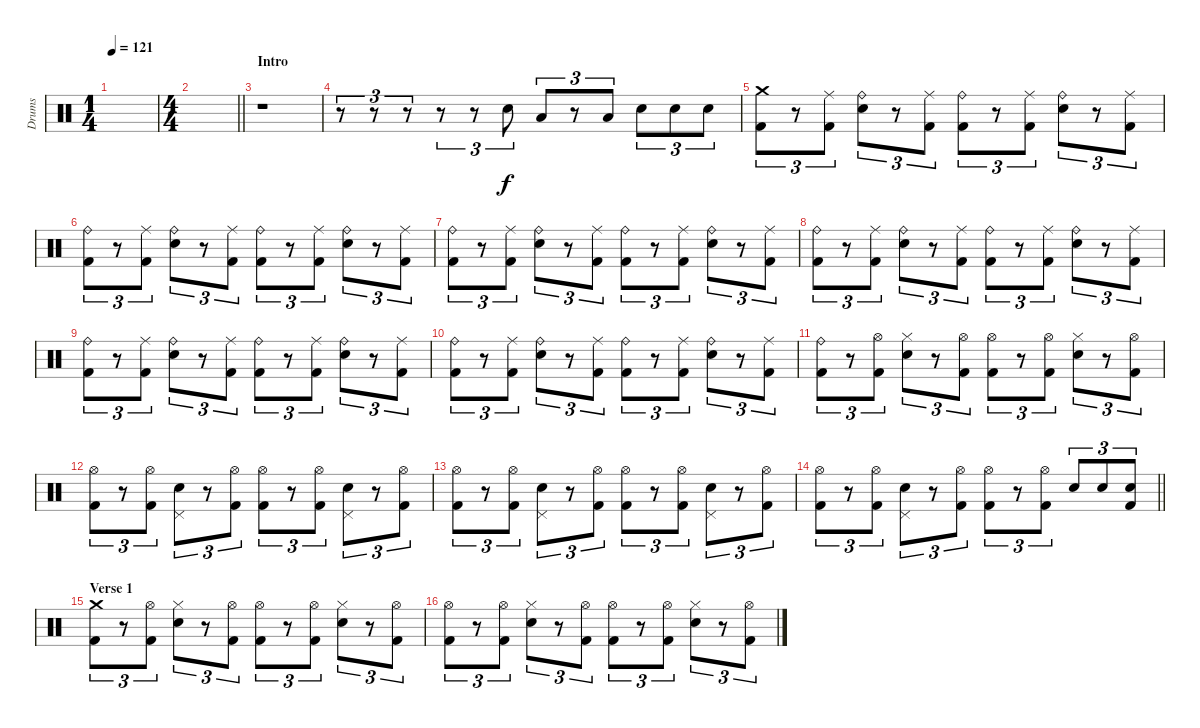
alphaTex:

\track ("Drums" "Drums") {instrument percussion}
\staff {score}
\articulation defaults
\ts (1 4)
\tempo 121
\clef neutral
\ks c
|
\ts (4 4)
\barLineRight lightlight
|
\section ("" "Intro")
r.1 |
r.8{tu (3 2)} r.8{tu (3 2)} r.8{tu (3 2)} r.8{tu (3 2)} r.8{tu (3 2)} "Snare (hit) 2".8{tu (3 2)} "Low Tom (hit)".8{tu (3 2)} r.8{tu (3 2)} "Low Floor Tom (hit)".8{tu (3 2)} "Snare (hit) 2".8{tu (3 2)} "Snare (hit) 2".8{tu (3 2)} "Snare (hit) 2".8{tu (3 2)} |
("Crash medium (hit)" "Kick (hit) 2").8{tu (3 2)} r.8{tu (3 2)} ("Ride (middle)" "Kick (hit) 2").8{tu (3 2)} ("Ride (bell)" "Snare (hit) 2").8{tu (3 2)} r.8{tu (3 2)} ("Ride (middle)" "Kick (hit) 2").8{tu (3 2)} ("Ride (bell)" "Kick (hit) 2").8{tu (3 2)} r.8{tu (3 2)} ("Ride (middle)" "Kick (hit) 2").8{tu (3 2)} ("Ride (bell)" "Snare (hit) 2").8{tu (3 2)} r.8{tu (3 2)} ("Ride (middle)" "Kick (hit) 2").8{tu (3 2)} |
("Ride (bell)" "Kick (hit) 2").8{tu (3 2)} r.8{tu (3 2)} ("Ride (middle)" "Kick (hit) 2").8{tu (3 2)} ("Ride (bell)" "Snare (hit) 2").8{tu (3 2)} r.8{tu (3 2)} ("Ride (middle)" "Kick (hit) 2").8{tu (3 2)} ("Ride (bell)" "Kick (hit) 2").8{tu (3 2)} r.8{tu (3 2)} ("Ride (middle)" "Kick (hit) 2").8{tu (3 2)} ("Ride (bell)" "Snare (hit) 2").8{tu (3 2)} r.8{tu (3 2)} ("Ride (middle)" "Kick (hit) 2").8{tu (3 2)} |
("Ride (bell)" "Kick (hit) 2").8{tu (3 2)} r.8{tu (3 2)} ("Ride (middle)" "Kick (hit) 2").8{tu (3 2)} ("Ride (bell)" "Snare (hit) 2").8{tu (3 2)} r.8{tu (3 2)} ("Ride (middle)" "Kick (hit) 2").8{tu (3 2)} ("Ride (bell)" "Kick (hit) 2").8{tu (3 2)} r.8{tu (3 2)} ("Ride (middle)" "Kick (hit) 2").8{tu (3 2)} ("Ride (bell)" "Snare (hit) 2").8{tu (3 2)} r.8{tu (3 2)} ("Ride (middle)" "Kick (hit) 2").8{tu (3 2)} |
("Ride (bell)" "Kick (hit) 2").8{tu (3 2)} r.8{tu (3 2)} ("Ride (middle)" "Kick (hit) 2").8{tu (3 2)} ("Ride (bell)" "Snare (hit) 2").8{tu (3 2)} r.8{tu (3 2)} ("Ride (middle)" "Kick (hit) 2").8{tu (3 2)} ("Ride (bell)" "Kick (hit) 2").8{tu (3 2)} r.8{tu (3 2)} ("Ride (middle)" "Kick (hit) 2").8{tu (3 2)} ("Ride (bell)" "Snare (hit) 2").8{tu (3 2)} r.8{tu (3 2)} ("Ride (middle)" "Kick (hit) 2").8{tu (3 2)} |
("Ride (bell)" "Kick (hit) 2").8{tu (3 2)} r.8{tu (3 2)} ("Ride (middle)" "Kick (hit) 2").8{tu (3 2)} ("Ride (bell)" "Snare (hit) 2").8{tu (3 2)} r.8{tu (3 2)} ("Ride (middle)" "Kick (hit) 2").8{tu (3 2)} ("Ride (bell)" "Kick (hit) 2").8{tu (3 2)} r.8{tu (3 2)} ("Ride (middle)" "Kick (hit) 2").8{tu (3 2)} ("Ride (bell)" "Snare (hit) 2").8{tu (3 2)} r.8{tu (3 2)} ("Ride (middle)" "Kick (hit) 2").8{tu (3 2)} |
("Ride (bell)" "Kick (hit) 2").8{tu (3 2)} r.8{tu (3 2)} ("Ride (middle)" "Kick (hit) 2").8{tu (3 2)} ("Ride (bell)" "Snare (hit) 2").8{tu (3 2)} r.8{tu (3 2)} ("Ride (middle)" "Kick (hit) 2").8{tu (3 2)} ("Ride (bell)" "Kick (hit) 2").8{tu (3 2)} r.8{tu (3 2)} ("Ride (middle)" "Kick (hit) 2").8{tu (3 2)} ("Ride (bell)" "Snare (hit) 2").8{tu (3 2)} r.8{tu (3 2)} ("Ride (middle)" "Kick (hit) 2").8{tu (3 2)} |
("Ride (bell)" "Kick (hit) 2").8{tu (3 2)} r.8{tu (3 2)} ("Hi-Hat (open)" "Kick (hit) 2").8{tu (3 2)} ("Hi-Hat (closed)" "Snare (hit) 2").8{tu (3 2)} r.8{tu (3 2)} ("Hi-Hat (open)" "Kick (hit) 2").8{tu (3 2)} ("Hi-Hat (open)" "Kick (hit) 2").8{tu (3 2)} r.8{tu (3 2)} ("Hi-Hat (open)" "Kick (hit) 2").8{tu (3 2)} ("Hi-Hat (closed)" "Snare (hit) 2").8{tu (3 2)} r.8{tu (3 2)} ("Hi-Hat (open)" "Kick (hit) 2").8{tu (3 2)} |
("Hi-Hat (open)" "Kick (hit) 2").8{tu (3 2)} r.8{tu (3 2)} ("Hi-Hat (open)" "Kick (hit) 2").8{tu (3 2)} ("Pedal Hi-Hat (hit)" "Snare (hit) 2").8{tu (3 2)} r.8{tu (3 2)} ("Hi-Hat (open)" "Kick (hit) 2").8{tu (3 2)} ("Hi-Hat (open)" "Kick (hit) 2").8{tu (3 2)} r.8{tu (3 2)} ("Hi-Hat (open)" "Kick (hit) 2").8{tu (3 2)} ("Pedal Hi-Hat (hit)" "Snare (hit) 2").8{tu (3 2)} r.8{tu (3 2)} ("Hi-Hat (open)" "Kick (hit) 2").8{tu (3 2)} |
("Hi-Hat (open)" "Kick (hit) 2").8{tu (3 2)} r.8{tu (3 2)} ("Hi-Hat (open)" "Kick (hit) 2").8{tu (3 2)} ("Pedal Hi-Hat (hit)" "Snare (hit) 2").8{tu (3 2)} r.8{tu (3 2)} ("Hi-Hat (open)" "Kick (hit) 2").8{tu (3 2)} ("Hi-Hat (open)" "Kick (hit) 2").8{tu (3 2)} r.8{tu (3 2)} ("Hi-Hat (open)" "Kick (hit) 2").8{tu (3 2)} ("Pedal Hi-Hat (hit)" "Snare (hit) 2").8{tu (3 2)} r.8{tu (3 2)} ("Hi-Hat (open)" "Kick (hit) 2").8{tu (3 2)} |
\barLineRight lightlight
("Hi-Hat (open)" "Kick (hit) 2").8{tu (3 2)} r.8{tu (3 2)} ("Hi-Hat (open)" "Kick (hit) 2").8{tu (3 2)} ("Pedal Hi-Hat (hit)" "Snare (hit) 2").8{tu (3 2)} r.8{tu (3 2)} ("Hi-Hat (open)" "Kick (hit) 2").8{tu (3 2)} ("Hi-Hat (open)" "Kick (hit) 2").8{tu (3 2)} r.8{tu (3 2)} ("Hi-Hat (open)" "Kick (hit) 2").8{tu (3 2)} "Snare (hit) 2".8{tu (3 2)} "Snare (hit) 2".8{tu (3 2)} ("Snare (hit) 2" "Kick (hit) 2").8{tu (3 2)} |
\section ("" "Verse 1")
("Crash medium (hit)" "Kick (hit) 2").8{tu (3 2)} r.8{tu (3 2)} ("Hi-Hat (open)" "Kick (hit) 2").8{tu (3 2)} ("Hi-Hat (closed)" "Snare (hit) 2").8{tu (3 2)} r.8{tu (3 2)} ("Hi-Hat (open)" "Kick (hit) 2").8{tu (3 2)} ("Hi-Hat (open)" "Kick (hit) 2").8{tu (3 2)} r.8{tu (3 2)} ("Hi-Hat (open)" "Kick (hit) 2").8{tu (3 2)} ("Hi-Hat (closed)" "Snare (hit) 2").8{tu (3 2)} r.8{tu (3 2)} ("Hi-Hat (open)" "Kick (hit) 2").8{tu (3 2)} |
("Hi-Hat (open)" "Kick (hit) 2").8{tu (3 2)} r.8{tu (3 2)} ("Hi-Hat (open)" "Kick (hit) 2").8{tu (3 2)} ("Hi-Hat (closed)" "Snare (hit) 2").8{tu (3 2)} r.8{tu (3 2)} ("Hi-Hat (open)" "Kick (hit) 2").8{tu (3 2)} ("Hi-Hat (open)" "Kick (hit) 2").8{tu (3 2)} r.8{tu (3 2)} ("Hi-Hat (open)" "Kick (hit) 2").8{tu (3 2)} ("Hi-Hat (closed)" "Snare (hit) 2").8{tu (3 2)} r.8{tu (3 2)} ("Hi-Hat (open)" "Kick (hit) 2").8{tu (3 2)}
